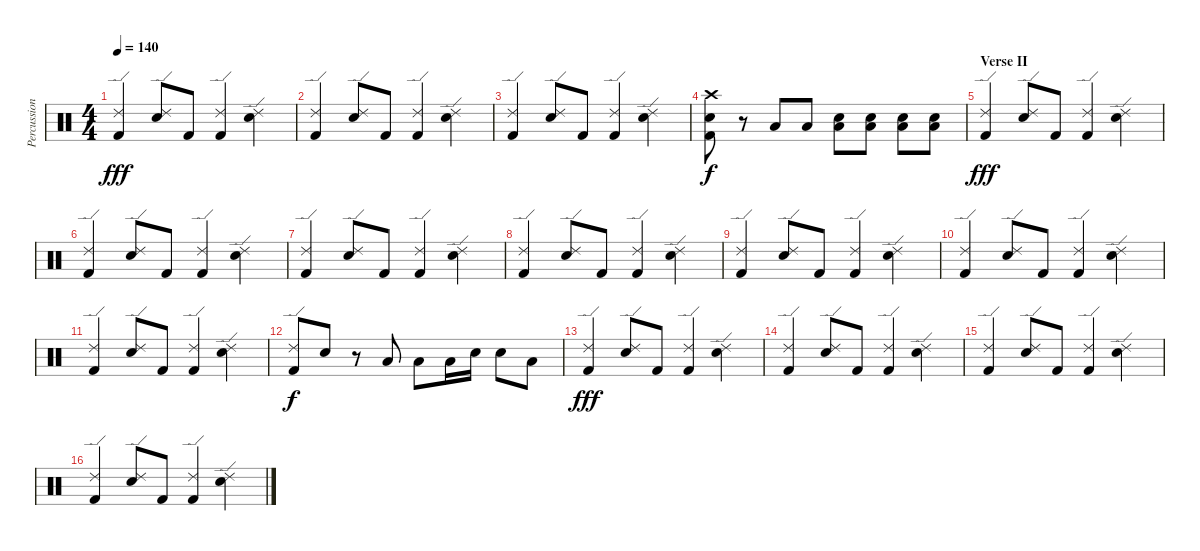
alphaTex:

\track ("Percussion" "Percussion") {instrument percussion}
\staff {score}
\articulation defaults
\ts (4 4)
\tempo 140
\clef neutral
\ks c
("Ride (edge) 2" "Kick (hit) 2").4{dy fff} ("Ride (edge) 2" "Electric Snare (hit)").8 "Kick (hit) 2".8 ("Ride (edge) 2" "Kick (hit) 2").4 ("Ride (edge) 2" "Electric Snare (hit)").4 |
("Ride (edge) 2" "Kick (hit) 2").4 ("Ride (edge) 2" "Electric Snare (hit)").8 "Kick (hit) 2".8 ("Ride (edge) 2" "Kick (hit) 2").4 ("Ride (edge) 2" "Electric Snare (hit)").4 |
("Ride (edge) 2" "Kick (hit) 2").4 ("Ride (edge) 2" "Electric Snare (hit)").8 "Kick (hit) 2".8 ("Ride (edge) 2" "Kick (hit) 2").4 ("Ride (edge) 2" "Electric Snare (hit)").4 |
("Crash high (hit)" "Electric Snare (hit)" "Kick (hit) 2").8{dy f} r.8 "Low Floor Tom (hit)".8 "Low Floor Tom (hit)".8 ("Electric Snare (hit)" "Low Floor Tom (hit)").8 ("Electric Snare (hit)" "Low Floor Tom (hit)").8 ("Electric Snare (hit)" "Low Floor Tom (hit)").8 ("Electric Snare (hit)" "Low Floor Tom (hit)").8 |
\section ("" "Verse II")
("Ride (edge) 2" "Kick (hit) 2").4{dy fff} ("Ride (edge) 2" "Electric Snare (hit)").8 "Kick (hit) 2".8 ("Ride (edge) 2" "Kick (hit) 2").4 ("Ride (edge) 2" "Electric Snare (hit)").4 |
("Ride (edge) 2" "Kick (hit) 2").4 ("Ride (edge) 2" "Electric Snare (hit)").8 "Kick (hit) 2".8 ("Ride (edge) 2" "Kick (hit) 2").4 ("Ride (edge) 2" "Electric Snare (hit)").4 |
("Ride (edge) 2" "Kick (hit) 2").4 ("Ride (edge) 2" "Electric Snare (hit)").8 "Kick (hit) 2".8 ("Ride (edge) 2" "Kick (hit) 2").4 ("Ride (edge) 2" "Electric Snare (hit)").4 |
("Ride (edge) 2" "Kick (hit) 2").4 ("Ride (edge) 2" "Electric Snare (hit)").8 "Kick (hit) 2".8 ("Ride (edge) 2" "Kick (hit) 2").4 ("Ride (edge) 2" "Electric Snare (hit)").4 |
("Ride (edge) 2" "Kick (hit) 2").4 ("Ride (edge) 2" "Electric Snare (hit)").8 "Kick (hit) 2".8 ("Ride (edge) 2" "Kick (hit) 2").4 ("Ride (edge) 2" "Electric Snare (hit)").4 |
("Ride (edge) 2" "Kick (hit) 2").4 ("Ride (edge) 2" "Electric Snare (hit)").8 "Kick (hit) 2".8 ("Ride (edge) 2" "Kick (hit) 2").4 ("Ride (edge) 2" "Electric Snare (hit)").4 |
("Ride (edge) 2" "Kick (hit) 2").4 ("Ride (edge) 2" "Electric Snare (hit)").8 "Kick (hit) 2".8 ("Ride (edge) 2" "Kick (hit) 2").4 ("Ride (edge) 2" "Electric Snare (hit)").4 |
("Ride (edge) 2" "Kick (hit) 2").8{dy f} "Electric Snare (hit)".8 r.8 "Low Floor Tom (hit)".8 "Low Floor Tom (hit)".8 "Low Floor Tom (hit)".16 "Electric Snare (hit)".16 "Electric Snare (hit)".8 "Low Floor Tom (hit)".8 |
("Ride (edge) 2" "Kick (hit) 2").4{dy fff} ("Ride (edge) 2" "Electric Snare (hit)").8 "Kick (hit) 2".8 ("Ride (edge) 2" "Kick (hit) 2").4 ("Ride (edge) 2" "Electric Snare (hit)").4 |
("Ride (edge) 2" "Kick (hit) 2").4 ("Ride (edge) 2" "Electric Snare (hit)").8 "Kick (hit) 2".8 ("Ride (edge) 2" "Kick (hit) 2").4 ("Ride (edge) 2" "Electric Snare (hit)").4 |
("Ride (edge) 2" "Kick (hit) 2").4 ("Ride (edge) 2" "Electric Snare (hit)").8 "Kick (hit) 2".8 ("Ride (edge) 2" "Kick (hit) 2").4 ("Ride (edge) 2" "Electric Snare (hit)").4 |
("Ride (edge) 2" "Kick (hit) 2").4 ("Ride (edge) 2" "Electric Snare (hit)").8 "Kick (hit) 2".8 ("Ride (edge) 2" "Kick (hit) 2").4 ("Ride (edge) 2" "Electric Snare (hit)").4
